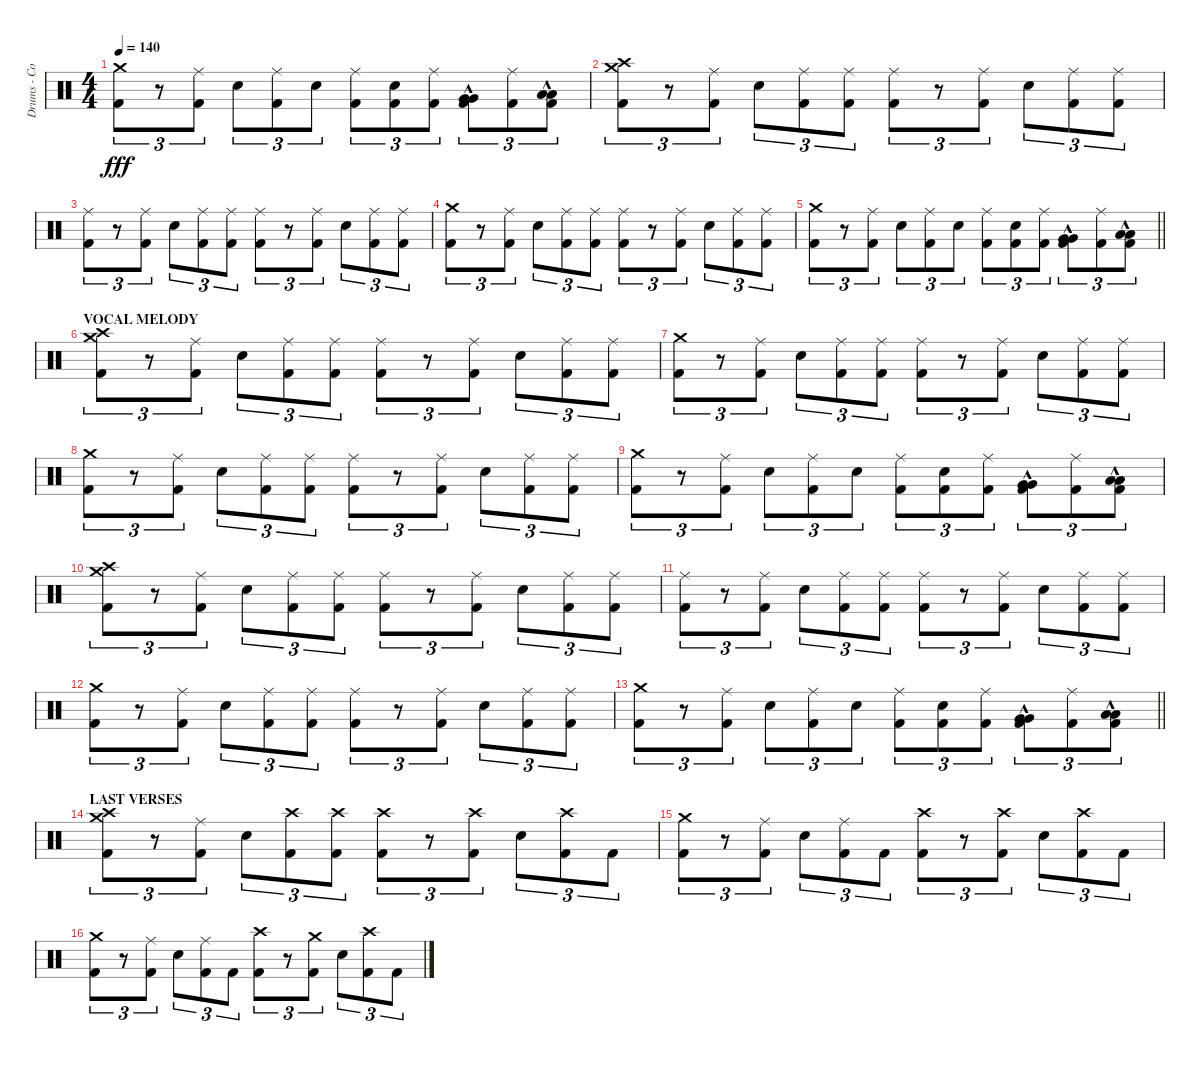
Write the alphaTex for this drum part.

\track ("Drums - Cozy Powell" "Drums - Co") {instrument percussion}
\staff {score}
\articulation defaults
\ts (4 4)
\tempo 140
\clef neutral
\ks c
("Crash medium (hit)" "Kick (hit) 2").8{tu (3 2) dy fff} r.8{tu (3 2)} ("Ride (middle)" "Kick (hit) 2").8{tu (3 2)} "Snare (hit) 2".8{tu (3 2)} ("Ride (middle)" "Kick (hit) 2").8{tu (3 2)} "Snare (hit) 2".8{tu (3 2)} ("Ride (middle)" "Kick (hit) 2").8{tu (3 2)} ("Snare (hit) 2" "Kick (hit) 2").8{tu (3 2)} ("Ride (middle)" "Kick (hit) 2").8{tu (3 2)} ("Very Low Tom (hit)"{hac} "Very Low Tom (hit)"{hac} "Kick (hit) 2"{hac}).8{tu (3 2)} ("Ride (middle)" "Kick (hit) 2").8{tu (3 2)} ("Low Floor Tom (hit)"{hac} "Low Floor Tom (hit)"{hac} "Kick (hit) 2"{hac}).8{tu (3 2)} |
("Crash high (hit)" "Crash medium (hit)" "Kick (hit) 2").8{tu (3 2)} r.8{tu (3 2)} ("Ride (middle)" "Kick (hit) 2").8{tu (3 2)} "Snare (hit) 2".8{tu (3 2)} ("Ride (middle)" "Kick (hit) 2").8{tu (3 2)} ("Ride (middle)" "Kick (hit) 2").8{tu (3 2)} ("Ride (middle)" "Kick (hit) 2").8{tu (3 2)} r.8{tu (3 2)} ("Ride (middle)" "Kick (hit) 2").8{tu (3 2)} "Snare (hit) 2".8{tu (3 2)} ("Ride (middle)" "Kick (hit) 2").8{tu (3 2)} ("Ride (middle)" "Kick (hit) 2").8{tu (3 2)} |
("Ride (middle)" "Kick (hit) 2").8{tu (3 2)} r.8{tu (3 2)} ("Ride (middle)" "Kick (hit) 2").8{tu (3 2)} "Snare (hit) 2".8{tu (3 2)} ("Ride (middle)" "Kick (hit) 2").8{tu (3 2)} ("Ride (middle)" "Kick (hit) 2").8{tu (3 2)} ("Ride (middle)" "Kick (hit) 2").8{tu (3 2)} r.8{tu (3 2)} ("Ride (middle)" "Kick (hit) 2").8{tu (3 2)} "Snare (hit) 2".8{tu (3 2)} ("Ride (middle)" "Kick (hit) 2").8{tu (3 2)} ("Ride (middle)" "Kick (hit) 2").8{tu (3 2)} |
("Crash medium (hit)" "Kick (hit) 2").8{tu (3 2)} r.8{tu (3 2)} ("Ride (middle)" "Kick (hit) 2").8{tu (3 2)} "Snare (hit) 2".8{tu (3 2)} ("Ride (middle)" "Kick (hit) 2").8{tu (3 2)} ("Ride (middle)" "Kick (hit) 2").8{tu (3 2)} ("Ride (middle)" "Kick (hit) 2").8{tu (3 2)} r.8{tu (3 2)} ("Ride (middle)" "Kick (hit) 2").8{tu (3 2)} "Snare (hit) 2".8{tu (3 2)} ("Ride (middle)" "Kick (hit) 2").8{tu (3 2)} ("Ride (middle)" "Kick (hit) 2").8{tu (3 2)} |
\barLineRight lightlight
("Crash medium (hit)" "Kick (hit) 2").8{tu (3 2)} r.8{tu (3 2)} ("Ride (middle)" "Kick (hit) 2").8{tu (3 2)} "Snare (hit) 2".8{tu (3 2)} ("Ride (middle)" "Kick (hit) 2").8{tu (3 2)} "Snare (hit) 2".8{tu (3 2)} ("Ride (middle)" "Kick (hit) 2").8{tu (3 2)} ("Snare (hit) 2" "Kick (hit) 2").8{tu (3 2)} ("Ride (middle)" "Kick (hit) 2").8{tu (3 2)} ("Very Low Tom (hit)"{hac} "Very Low Tom (hit)"{hac} "Kick (hit) 2"{hac}).8{tu (3 2)} ("Ride (middle)" "Kick (hit) 2").8{tu (3 2)} ("Low Floor Tom (hit)"{hac} "Low Floor Tom (hit)"{hac} "Kick (hit) 2"{hac}).8{tu (3 2)} |
\section ("" "VOCAL MELODY")
("Crash high (hit)" "Crash medium (hit)" "Kick (hit) 2").8{tu (3 2)} r.8{tu (3 2)} ("Ride (middle)" "Kick (hit) 2").8{tu (3 2)} "Snare (hit) 2".8{tu (3 2)} ("Ride (middle)" "Kick (hit) 2").8{tu (3 2)} ("Ride (middle)" "Kick (hit) 2").8{tu (3 2)} ("Ride (middle)" "Kick (hit) 2").8{tu (3 2)} r.8{tu (3 2)} ("Ride (middle)" "Kick (hit) 2").8{tu (3 2)} "Snare (hit) 2".8{tu (3 2)} ("Ride (middle)" "Kick (hit) 2").8{tu (3 2)} ("Ride (middle)" "Kick (hit) 2").8{tu (3 2)} |
("Crash medium (hit)" "Kick (hit) 2").8{tu (3 2)} r.8{tu (3 2)} ("Ride (middle)" "Kick (hit) 2").8{tu (3 2)} "Snare (hit) 2".8{tu (3 2)} ("Ride (middle)" "Kick (hit) 2").8{tu (3 2)} ("Ride (middle)" "Kick (hit) 2").8{tu (3 2)} ("Ride (middle)" "Kick (hit) 2").8{tu (3 2)} r.8{tu (3 2)} ("Ride (middle)" "Kick (hit) 2").8{tu (3 2)} "Snare (hit) 2".8{tu (3 2)} ("Ride (middle)" "Kick (hit) 2").8{tu (3 2)} ("Ride (middle)" "Kick (hit) 2").8{tu (3 2)} |
("Crash medium (hit)" "Kick (hit) 2").8{tu (3 2)} r.8{tu (3 2)} ("Ride (middle)" "Kick (hit) 2").8{tu (3 2)} "Snare (hit) 2".8{tu (3 2)} ("Ride (middle)" "Kick (hit) 2").8{tu (3 2)} ("Ride (middle)" "Kick (hit) 2").8{tu (3 2)} ("Ride (middle)" "Kick (hit) 2").8{tu (3 2)} r.8{tu (3 2)} ("Ride (middle)" "Kick (hit) 2").8{tu (3 2)} "Snare (hit) 2".8{tu (3 2)} ("Ride (middle)" "Kick (hit) 2").8{tu (3 2)} ("Ride (middle)" "Kick (hit) 2").8{tu (3 2)} |
("Crash medium (hit)" "Kick (hit) 2").8{tu (3 2)} r.8{tu (3 2)} ("Ride (middle)" "Kick (hit) 2").8{tu (3 2)} "Snare (hit) 2".8{tu (3 2)} ("Ride (middle)" "Kick (hit) 2").8{tu (3 2)} "Snare (hit) 2".8{tu (3 2)} ("Ride (middle)" "Kick (hit) 2").8{tu (3 2)} ("Snare (hit) 2" "Kick (hit) 2").8{tu (3 2)} ("Ride (middle)" "Kick (hit) 2").8{tu (3 2)} ("Very Low Tom (hit)"{hac} "Very Low Tom (hit)"{hac} "Kick (hit) 2"{hac}).8{tu (3 2)} ("Ride (middle)" "Kick (hit) 2").8{tu (3 2)} ("Low Floor Tom (hit)"{hac} "Low Floor Tom (hit)"{hac} "Kick (hit) 2"{hac}).8{tu (3 2)} |
("Crash high (hit)" "Crash medium (hit)" "Kick (hit) 2").8{tu (3 2)} r.8{tu (3 2)} ("Ride (middle)" "Kick (hit) 2").8{tu (3 2)} "Snare (hit) 2".8{tu (3 2)} ("Ride (middle)" "Kick (hit) 2").8{tu (3 2)} ("Ride (middle)" "Kick (hit) 2").8{tu (3 2)} ("Ride (middle)" "Kick (hit) 2").8{tu (3 2)} r.8{tu (3 2)} ("Ride (middle)" "Kick (hit) 2").8{tu (3 2)} "Snare (hit) 2".8{tu (3 2)} ("Ride (middle)" "Kick (hit) 2").8{tu (3 2)} ("Ride (middle)" "Kick (hit) 2").8{tu (3 2)} |
("Ride (middle)" "Kick (hit) 2").8{tu (3 2)} r.8{tu (3 2)} ("Ride (middle)" "Kick (hit) 2").8{tu (3 2)} "Snare (hit) 2".8{tu (3 2)} ("Ride (middle)" "Kick (hit) 2").8{tu (3 2)} ("Ride (middle)" "Kick (hit) 2").8{tu (3 2)} ("Ride (middle)" "Kick (hit) 2").8{tu (3 2)} r.8{tu (3 2)} ("Ride (middle)" "Kick (hit) 2").8{tu (3 2)} "Snare (hit) 2".8{tu (3 2)} ("Ride (middle)" "Kick (hit) 2").8{tu (3 2)} ("Ride (middle)" "Kick (hit) 2").8{tu (3 2)} |
("Crash medium (hit)" "Kick (hit) 2").8{tu (3 2)} r.8{tu (3 2)} ("Ride (middle)" "Kick (hit) 2").8{tu (3 2)} "Snare (hit) 2".8{tu (3 2)} ("Ride (middle)" "Kick (hit) 2").8{tu (3 2)} ("Ride (middle)" "Kick (hit) 2").8{tu (3 2)} ("Ride (middle)" "Kick (hit) 2").8{tu (3 2)} r.8{tu (3 2)} ("Ride (middle)" "Kick (hit) 2").8{tu (3 2)} "Snare (hit) 2".8{tu (3 2)} ("Ride (middle)" "Kick (hit) 2").8{tu (3 2)} ("Ride (middle)" "Kick (hit) 2").8{tu (3 2)} |
\barLineRight lightlight
("Crash medium (hit)" "Kick (hit) 2").8{tu (3 2)} r.8{tu (3 2)} ("Ride (middle)" "Kick (hit) 2").8{tu (3 2)} "Snare (hit) 2".8{tu (3 2)} ("Ride (middle)" "Kick (hit) 2").8{tu (3 2)} "Snare (hit) 2".8{tu (3 2)} ("Ride (middle)" "Kick (hit) 2").8{tu (3 2)} ("Snare (hit) 2" "Kick (hit) 2").8{tu (3 2)} ("Ride (middle)" "Kick (hit) 2").8{tu (3 2)} ("Very Low Tom (hit)"{hac} "Very Low Tom (hit)"{hac} "Kick (hit) 2"{hac}).8{tu (3 2)} ("Ride (middle)" "Kick (hit) 2").8{tu (3 2)} ("Low Floor Tom (hit)"{hac} "Low Floor Tom (hit)"{hac} "Kick (hit) 2"{hac}).8{tu (3 2)} |
\section ("" "LAST VERSES")
("Crash high (hit)" "Crash medium (hit)" "Kick (hit) 2").8{tu (3 2)} r.8{tu (3 2)} ("Ride (middle)" "Kick (hit) 2").8{tu (3 2)} "Snare (hit) 2".8{tu (3 2)} ("Crash high (hit)" "Kick (hit) 2").8{tu (3 2)} ("Crash high (hit)" "Kick (hit) 2").8{tu (3 2)} ("Crash high (hit)" "Kick (hit) 2").8{tu (3 2)} r.8{tu (3 2)} ("Crash high (hit)" "Kick (hit) 2").8{tu (3 2)} "Snare (hit) 2".8{tu (3 2)} ("Crash high (hit)" "Kick (hit) 2").8{tu (3 2)} "Kick (hit) 2".8{tu (3 2)} |
("Crash medium (hit)" "Kick (hit) 2").8{tu (3 2)} r.8{tu (3 2)} ("Ride (middle)" "Kick (hit) 2").8{tu (3 2)} "Snare (hit) 2".8{tu (3 2)} ("Ride (middle)" "Kick (hit) 2").8{tu (3 2)} "Kick (hit) 2".8{tu (3 2)} ("Crash high (hit)" "Kick (hit) 2").8{tu (3 2)} r.8{tu (3 2)} ("Crash high (hit)" "Kick (hit) 2").8{tu (3 2)} "Snare (hit) 2".8{tu (3 2)} ("Crash high (hit)" "Kick (hit) 2").8{tu (3 2)} "Kick (hit) 2".8{tu (3 2)} |
("Crash medium (hit)" "Kick (hit) 2").8{tu (3 2)} r.8{tu (3 2)} ("Ride (middle)" "Kick (hit) 2").8{tu (3 2)} "Snare (hit) 2".8{tu (3 2)} ("Ride (middle)" "Kick (hit) 2").8{tu (3 2)} "Kick (hit) 2".8{tu (3 2)} ("Crash high (hit)" "Kick (hit) 2").8{tu (3 2)} r.8{tu (3 2)} ("Crash medium (hit)" "Kick (hit) 2").8{tu (3 2)} "Snare (hit) 2".8{tu (3 2)} ("Crash high (hit)" "Kick (hit) 2").8{tu (3 2)} "Kick (hit) 2".8{tu (3 2)}
